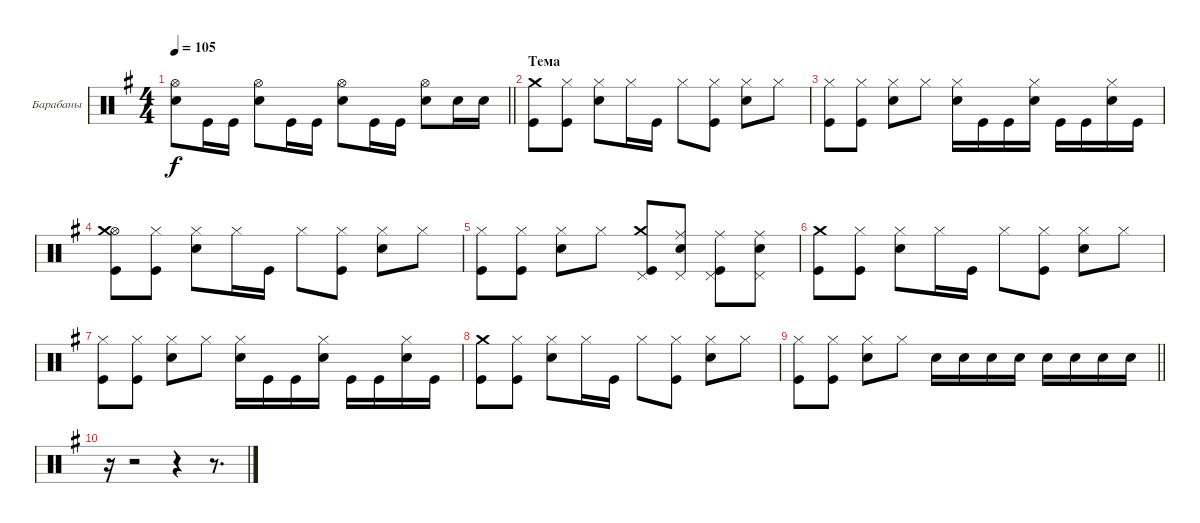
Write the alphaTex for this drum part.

\bracketExtendMode groupsimilarinstruments
\firstSystemTrackNameMode fullname
\otherSystemsTrackNameMode fullname
\firstSystemTrackNameOrientation horizontal
\otherSystemsTrackNameOrientation horizontal
\chordDiagramsInScore
\track ("Барабаны" "Drums") {instrument percussion}
\staff {score}
\articulation defaults
\ts (4 4)
\tempo 105
\clef neutral
\barLineRight lightlight
\ks eminor
("Snare (hit) 2" "Hi-Hat (open)").8{dy f} "Kick (hit)".16 "Kick (hit)".16 ("Snare (hit) 2" "Hi-Hat (open)").8 "Kick (hit)".16 "Kick (hit)".16 ("Snare (hit) 2" "Hi-Hat (open)").8 "Kick (hit)".16 "Kick (hit)".16 ("Snare (hit) 2" "Hi-Hat (open)").8 "Snare (hit) 2".16 "Snare (hit) 2".16 |
\section ("" "Тема")
("Kick (hit)" "Crash medium (hit)").8 ("Kick (hit)" "Hi-Hat (closed)").8 ("Hi-Hat (closed)" "Snare (hit) 2").8 "Hi-Hat (closed)".16 "Kick (hit)".16 "Hi-Hat (closed)".8 ("Hi-Hat (closed)" "Kick (hit)").8 ("Hi-Hat (closed)" "Snare (hit) 2").8 "Hi-Hat (closed)".8 |
("Kick (hit)" "Hi-Hat (closed)").8 ("Kick (hit)" "Hi-Hat (closed)").8 ("Hi-Hat (closed)" "Snare (hit) 2").8 "Hi-Hat (closed)".8 ("Snare (hit) 2" "Hi-Hat (closed)").16 "Kick (hit)".16 "Kick (hit)".16 ("Snare (hit) 2" "Hi-Hat (closed)").16 "Kick (hit)".16 "Kick (hit)".16 ("Snare (hit) 2" "Hi-Hat (closed)").16 "Kick (hit)".16 |
("Kick (hit)" "Hi-Hat (open)" "Crash medium (hit)").8 ("Kick (hit)" "Hi-Hat (closed)").8 ("Hi-Hat (closed)" "Snare (hit) 2").8 "Hi-Hat (closed)".16 "Kick (hit)".16 "Hi-Hat (closed)".8 ("Hi-Hat (closed)" "Kick (hit)").8 ("Hi-Hat (closed)" "Snare (hit) 2").8 "Hi-Hat (closed)".8 |
("Kick (hit)" "Hi-Hat (closed)").8 ("Kick (hit)" "Hi-Hat (closed)").8 ("Hi-Hat (closed)" "Snare (hit) 2").8 "Hi-Hat (closed)".8 ("Kick (hit)" "Crash medium (hit)" "Pedal Hi-Hat (hit)").8 ("Snare (hit) 2" "Ride (middle)" "Pedal Hi-Hat (hit)").8 ("Kick (hit)" "Ride (middle)" "Pedal Hi-Hat (hit)").8 ("Snare (hit) 2" "Pedal Hi-Hat (hit)" "Ride (middle)").8 |
("Kick (hit)" "Crash medium (hit)").8 ("Kick (hit)" "Hi-Hat (closed)").8 ("Hi-Hat (closed)" "Snare (hit) 2").8 "Hi-Hat (closed)".16 "Kick (hit)".16 "Hi-Hat (closed)".8 ("Hi-Hat (closed)" "Kick (hit)").8 ("Hi-Hat (closed)" "Snare (hit) 2").8 "Hi-Hat (closed)".8 |
("Kick (hit)" "Hi-Hat (closed)").8 ("Kick (hit)" "Hi-Hat (closed)").8 ("Hi-Hat (closed)" "Snare (hit) 2").8 "Hi-Hat (closed)".8 ("Snare (hit) 2" "Hi-Hat (closed)").16 "Kick (hit)".16 "Kick (hit)".16 ("Snare (hit) 2" "Hi-Hat (closed)").16 "Kick (hit)".16 "Kick (hit)".16 ("Snare (hit) 2" "Hi-Hat (closed)").16 "Kick (hit)".16 |
("Kick (hit)" "Crash medium (hit)").8 ("Kick (hit)" "Hi-Hat (closed)").8 ("Hi-Hat (closed)" "Snare (hit) 2").8 "Hi-Hat (closed)".16 "Kick (hit)".16 "Hi-Hat (closed)".8 ("Hi-Hat (closed)" "Kick (hit)").8 ("Hi-Hat (closed)" "Snare (hit) 2").8 "Hi-Hat (closed)".8 |
\barLineRight lightlight
("Kick (hit)" "Hi-Hat (closed)").8 ("Kick (hit)" "Hi-Hat (closed)").8 ("Hi-Hat (closed)" "Snare (hit) 2").8 "Hi-Hat (closed)".8 "Snare (hit) 2".16 "Snare (hit) 2".16 "Snare (hit) 2".16 "Snare (hit) 2".16 "Snare (hit) 2".16 "Snare (hit) 2".16 "Snare (hit) 2".16 "Snare (hit) 2".16 |
r.16 r.2 r.4 r.8{d}
